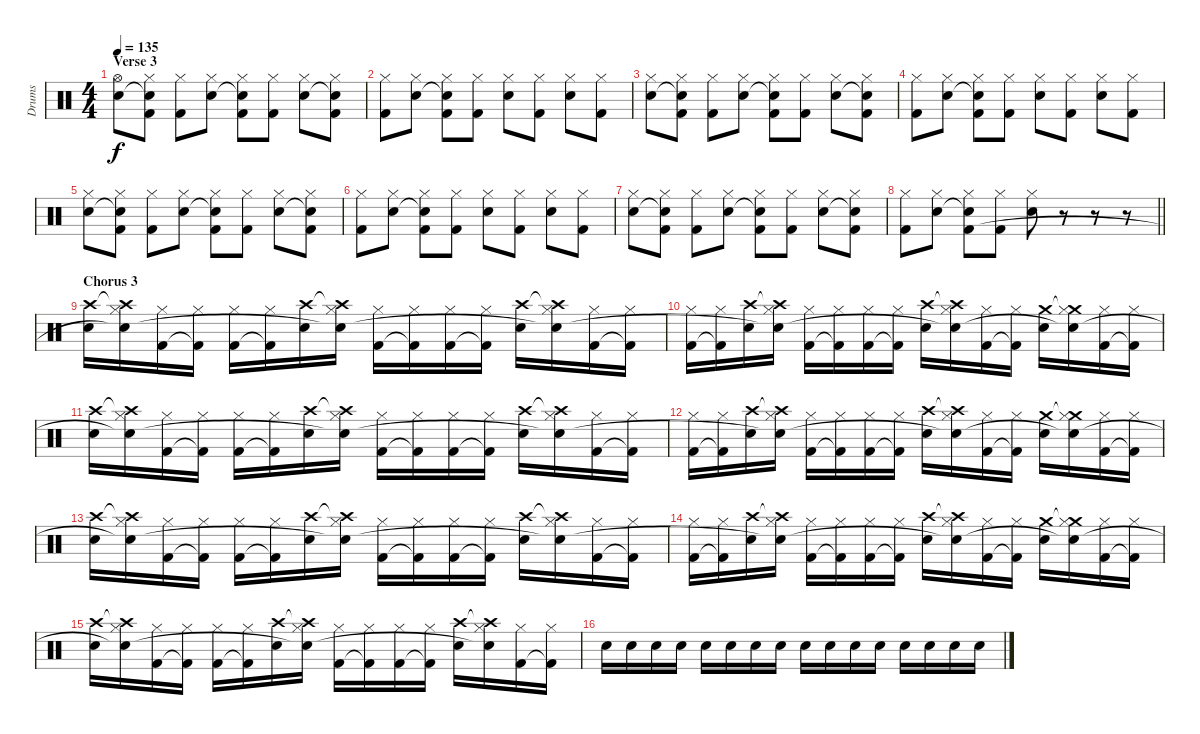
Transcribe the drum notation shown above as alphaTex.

\track ("Drums" "Drums") {instrument percussion}
\staff {score}
\articulation defaults
\ts (4 4)
\section ("" "Verse 3")
\tempo 135
\clef neutral
\ks c
("Hi-Hat (open)" "Snare (hit) 2").8{dy f} ("Hi-Hat (closed)" "Snare (hit) 2"{t} "Kick (hit) 2").8 ("Hi-Hat (closed)" "Kick (hit) 2").8 ("Hi-Hat (closed)" "Snare (hit) 2").8 ("Hi-Hat (closed)" "Snare (hit) 2"{t} "Kick (hit) 2").8 ("Hi-Hat (closed)" "Kick (hit) 2").8 ("Hi-Hat (closed)" "Snare (hit) 2").8 ("Hi-Hat (closed)" "Snare (hit) 2"{t} "Kick (hit) 2").8 |
("Hi-Hat (closed)" "Kick (hit) 2").8 ("Hi-Hat (closed)" "Snare (hit) 2").8 ("Hi-Hat (closed)" "Snare (hit) 2"{t} "Kick (hit) 2").8 ("Hi-Hat (closed)" "Kick (hit) 2").8 ("Hi-Hat (closed)" "Snare (hit) 2").8 ("Hi-Hat (closed)" "Kick (hit) 2").8 ("Hi-Hat (closed)" "Snare (hit) 2").8 ("Hi-Hat (closed)" "Kick (hit) 2").8 |
("Hi-Hat (closed)" "Snare (hit) 2").8 ("Hi-Hat (closed)" "Snare (hit) 2"{t} "Kick (hit) 2").8 ("Hi-Hat (closed)" "Kick (hit) 2").8 ("Hi-Hat (closed)" "Snare (hit) 2").8 ("Hi-Hat (closed)" "Snare (hit) 2"{t} "Kick (hit) 2").8 ("Hi-Hat (closed)" "Kick (hit) 2").8 ("Hi-Hat (closed)" "Snare (hit) 2").8 ("Hi-Hat (closed)" "Snare (hit) 2"{t} "Kick (hit) 2").8 |
("Hi-Hat (closed)" "Kick (hit) 2").8 ("Hi-Hat (closed)" "Snare (hit) 2").8 ("Hi-Hat (closed)" "Snare (hit) 2"{t} "Kick (hit) 2").8 ("Hi-Hat (closed)" "Kick (hit) 2").8 ("Hi-Hat (closed)" "Snare (hit) 2").8 ("Hi-Hat (closed)" "Kick (hit) 2").8 ("Hi-Hat (closed)" "Snare (hit) 2").8 ("Hi-Hat (closed)" "Kick (hit) 2").8 |
("Hi-Hat (closed)" "Snare (hit) 2").8 ("Hi-Hat (closed)" "Snare (hit) 2"{t} "Kick (hit) 2").8 ("Hi-Hat (closed)" "Kick (hit) 2").8 ("Hi-Hat (closed)" "Snare (hit) 2").8 ("Hi-Hat (closed)" "Snare (hit) 2"{t} "Kick (hit) 2").8 ("Hi-Hat (closed)" "Kick (hit) 2").8 ("Hi-Hat (closed)" "Snare (hit) 2").8 ("Hi-Hat (closed)" "Snare (hit) 2"{t} "Kick (hit) 2").8 |
("Hi-Hat (closed)" "Kick (hit) 2").8 ("Hi-Hat (closed)" "Snare (hit) 2").8 ("Hi-Hat (closed)" "Snare (hit) 2"{t} "Kick (hit) 2").8 ("Hi-Hat (closed)" "Kick (hit) 2").8 ("Hi-Hat (closed)" "Snare (hit) 2").8 ("Hi-Hat (closed)" "Kick (hit) 2").8 ("Hi-Hat (closed)" "Snare (hit) 2").8 ("Hi-Hat (closed)" "Kick (hit) 2").8 |
("Hi-Hat (closed)" "Snare (hit) 2").8 ("Hi-Hat (closed)" "Snare (hit) 2"{t} "Kick (hit) 2").8 ("Hi-Hat (closed)" "Kick (hit) 2").8 ("Hi-Hat (closed)" "Snare (hit) 2").8 ("Hi-Hat (closed)" "Snare (hit) 2"{t} "Kick (hit) 2").8 ("Hi-Hat (closed)" "Kick (hit) 2").8 ("Hi-Hat (closed)" "Snare (hit) 2").8 ("Hi-Hat (closed)" "Snare (hit) 2"{t} "Kick (hit) 2").8 |
\barLineRight lightlight
("Hi-Hat (closed)" "Kick (hit) 2").8 ("Hi-Hat (closed)" "Snare (hit) 2").8 ("Hi-Hat (closed)" "Snare (hit) 2"{t} "Kick (hit) 2").8 ("Hi-Hat (closed)" "Kick (hit) 2").8 ("Hi-Hat (closed)" "Snare (hit) 2").8 r.8 r.8 r.8 |
\section ("" "Chorus 3")
("Crash high (hit)" "Snare (hit) 2").16 ("Crash high (hit)"{t} "Hi-Hat (closed)" "Snare (hit) 2"{t}).16 ("Hi-Hat (closed)" "Kick (hit) 2").16 ("Hi-Hat (closed)" "Kick (hit) 2"{t}).16 ("Hi-Hat (closed)" "Kick (hit) 2").16 ("Hi-Hat (closed)" "Kick (hit) 2"{t}).16 ("Crash high (hit)" "Snare (hit) 2").16 ("Crash high (hit)"{t} "Hi-Hat (closed)" "Snare (hit) 2"{t}).16 ("Hi-Hat (closed)" "Kick (hit) 2").16 ("Hi-Hat (closed)" "Kick (hit) 2"{t}).16 ("Hi-Hat (closed)" "Kick (hit) 2").16 ("Hi-Hat (closed)" "Kick (hit) 2"{t}).16 ("Crash high (hit)" "Snare (hit) 2").16 ("Crash high (hit)"{t} "Hi-Hat (closed)" "Snare (hit) 2"{t}).16 ("Hi-Hat (closed)" "Kick (hit) 2").16 ("Hi-Hat (closed)" "Kick (hit) 2"{t}).16 |
("Hi-Hat (closed)" "Kick (hit) 2").16 ("Hi-Hat (closed)" "Kick (hit) 2"{t}).16 ("Crash high (hit)" "Snare (hit) 2").16 ("Crash high (hit)"{t} "Hi-Hat (closed)" "Snare (hit) 2"{t}).16 ("Hi-Hat (closed)" "Kick (hit) 2").16 ("Hi-Hat (closed)" "Kick (hit) 2"{t}).16 ("Hi-Hat (closed)" "Kick (hit) 2").16 ("Hi-Hat (closed)" "Kick (hit) 2"{t}).16 ("Crash high (hit)" "Snare (hit) 2").16 ("Crash high (hit)"{t} "Hi-Hat (closed)" "Snare (hit) 2"{t}).16 ("Hi-Hat (closed)" "Kick (hit) 2").16 ("Hi-Hat (closed)" "Kick (hit) 2"{t}).16 ("Crash medium (hit)" "Snare (hit) 2").16 ("Crash medium (hit)"{t} "Hi-Hat (closed)" "Snare (hit) 2"{t}).16 ("Hi-Hat (closed)" "Kick (hit) 2").16 ("Hi-Hat (closed)" "Kick (hit) 2"{t}).16 |
("Crash high (hit)" "Snare (hit) 2").16 ("Crash high (hit)"{t} "Hi-Hat (closed)" "Snare (hit) 2"{t}).16 ("Hi-Hat (closed)" "Kick (hit) 2").16 ("Hi-Hat (closed)" "Kick (hit) 2"{t}).16 ("Hi-Hat (closed)" "Kick (hit) 2").16 ("Hi-Hat (closed)" "Kick (hit) 2"{t}).16 ("Crash high (hit)" "Snare (hit) 2").16 ("Crash high (hit)"{t} "Hi-Hat (closed)" "Snare (hit) 2"{t}).16 ("Hi-Hat (closed)" "Kick (hit) 2").16 ("Hi-Hat (closed)" "Kick (hit) 2"{t}).16 ("Hi-Hat (closed)" "Kick (hit) 2").16 ("Hi-Hat (closed)" "Kick (hit) 2"{t}).16 ("Crash high (hit)" "Snare (hit) 2").16 ("Crash high (hit)"{t} "Hi-Hat (closed)" "Snare (hit) 2"{t}).16 ("Hi-Hat (closed)" "Kick (hit) 2").16 ("Hi-Hat (closed)" "Kick (hit) 2"{t}).16 |
("Hi-Hat (closed)" "Kick (hit) 2").16 ("Hi-Hat (closed)" "Kick (hit) 2"{t}).16 ("Crash high (hit)" "Snare (hit) 2").16 ("Crash high (hit)"{t} "Hi-Hat (closed)" "Snare (hit) 2"{t}).16 ("Hi-Hat (closed)" "Kick (hit) 2").16 ("Hi-Hat (closed)" "Kick (hit) 2"{t}).16 ("Hi-Hat (closed)" "Kick (hit) 2").16 ("Hi-Hat (closed)" "Kick (hit) 2"{t}).16 ("Crash high (hit)" "Snare (hit) 2").16 ("Crash high (hit)"{t} "Hi-Hat (closed)" "Snare (hit) 2"{t}).16 ("Hi-Hat (closed)" "Kick (hit) 2").16 ("Hi-Hat (closed)" "Kick (hit) 2"{t}).16 ("Crash medium (hit)" "Snare (hit) 2").16 ("Crash medium (hit)"{t} "Hi-Hat (closed)" "Snare (hit) 2"{t}).16 ("Hi-Hat (closed)" "Kick (hit) 2").16 ("Hi-Hat (closed)" "Kick (hit) 2"{t}).16 |
("Crash high (hit)" "Snare (hit) 2").16 ("Crash high (hit)"{t} "Hi-Hat (closed)" "Snare (hit) 2"{t}).16 ("Hi-Hat (closed)" "Kick (hit) 2").16 ("Hi-Hat (closed)" "Kick (hit) 2"{t}).16 ("Hi-Hat (closed)" "Kick (hit) 2").16 ("Hi-Hat (closed)" "Kick (hit) 2"{t}).16 ("Crash high (hit)" "Snare (hit) 2").16 ("Crash high (hit)"{t} "Hi-Hat (closed)" "Snare (hit) 2"{t}).16 ("Hi-Hat (closed)" "Kick (hit) 2").16 ("Hi-Hat (closed)" "Kick (hit) 2"{t}).16 ("Hi-Hat (closed)" "Kick (hit) 2").16 ("Hi-Hat (closed)" "Kick (hit) 2"{t}).16 ("Crash high (hit)" "Snare (hit) 2").16 ("Crash high (hit)"{t} "Hi-Hat (closed)" "Snare (hit) 2"{t}).16 ("Hi-Hat (closed)" "Kick (hit) 2").16 ("Hi-Hat (closed)" "Kick (hit) 2"{t}).16 |
("Hi-Hat (closed)" "Kick (hit) 2").16 ("Hi-Hat (closed)" "Kick (hit) 2"{t}).16 ("Crash high (hit)" "Snare (hit) 2").16 ("Crash high (hit)"{t} "Hi-Hat (closed)" "Snare (hit) 2"{t}).16 ("Hi-Hat (closed)" "Kick (hit) 2").16 ("Hi-Hat (closed)" "Kick (hit) 2"{t}).16 ("Hi-Hat (closed)" "Kick (hit) 2").16 ("Hi-Hat (closed)" "Kick (hit) 2"{t}).16 ("Crash high (hit)" "Snare (hit) 2").16 ("Crash high (hit)"{t} "Hi-Hat (closed)" "Snare (hit) 2"{t}).16 ("Hi-Hat (closed)" "Kick (hit) 2").16 ("Hi-Hat (closed)" "Kick (hit) 2"{t}).16 ("Crash medium (hit)" "Snare (hit) 2").16 ("Crash medium (hit)"{t} "Hi-Hat (closed)" "Snare (hit) 2"{t}).16 ("Hi-Hat (closed)" "Kick (hit) 2").16 ("Hi-Hat (closed)" "Kick (hit) 2"{t}).16 |
("Crash high (hit)" "Snare (hit) 2").16 ("Crash high (hit)"{t} "Hi-Hat (closed)" "Snare (hit) 2"{t}).16 ("Hi-Hat (closed)" "Kick (hit) 2").16 ("Hi-Hat (closed)" "Kick (hit) 2"{t}).16 ("Hi-Hat (closed)" "Kick (hit) 2").16 ("Hi-Hat (closed)" "Kick (hit) 2"{t}).16 ("Crash high (hit)" "Snare (hit) 2").16 ("Crash high (hit)"{t} "Hi-Hat (closed)" "Snare (hit) 2"{t}).16 ("Hi-Hat (closed)" "Kick (hit) 2").16 ("Hi-Hat (closed)" "Kick (hit) 2"{t}).16 ("Hi-Hat (closed)" "Kick (hit) 2").16 ("Hi-Hat (closed)" "Kick (hit) 2"{t}).16 ("Crash high (hit)" "Snare (hit) 2").16 ("Crash high (hit)"{t} "Hi-Hat (closed)" "Snare (hit) 2"{t}).16 ("Hi-Hat (closed)" "Kick (hit) 2").16 ("Hi-Hat (closed)" "Kick (hit) 2"{t}).16 |
"Snare (hit) 2".16 "Snare (hit) 2".16 "Snare (hit) 2".16 "Snare (hit) 2".16 "Snare (hit) 2".16 "Snare (hit) 2".16 "Snare (hit) 2".16 "Snare (hit) 2".16 "Snare (hit) 2".16 "Snare (hit) 2".16 "Snare (hit) 2".16 "Snare (hit) 2".16 "Snare (hit) 2".16 "Snare (hit) 2".16 "Snare (hit) 2".16 "Snare (hit) 2".16
